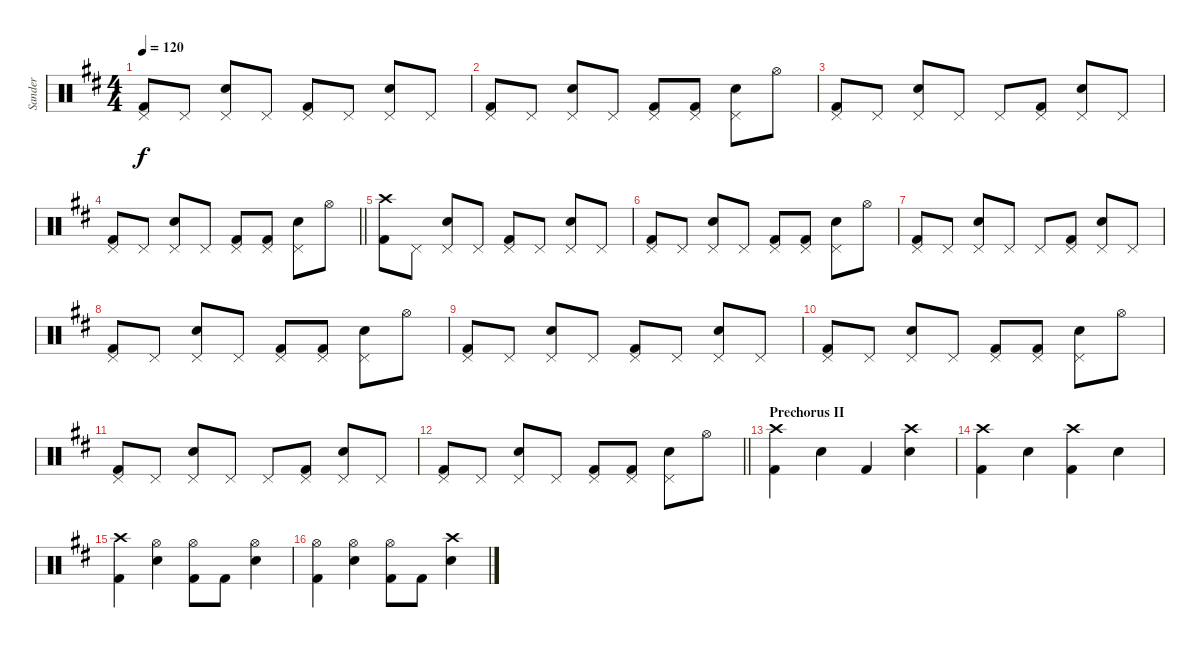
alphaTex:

\track ("Sander" "Sander") {instrument percussion}
\staff {score}
\articulation defaults
\ts (4 4)
\tempo 120
\clef neutral
\ks bminor
("Pedal Hi-Hat (hit)" "Kick (hit) 2").8{dy f} "Pedal Hi-Hat (hit)".8 ("Pedal Hi-Hat (hit)" "Snare (hit) 2").8 "Pedal Hi-Hat (hit)".8 ("Pedal Hi-Hat (hit)" "Kick (hit) 2").8 "Pedal Hi-Hat (hit)".8 ("Pedal Hi-Hat (hit)" "Snare (hit) 2").8 "Pedal Hi-Hat (hit)".8 |
("Pedal Hi-Hat (hit)" "Kick (hit) 2").8 "Pedal Hi-Hat (hit)".8 ("Pedal Hi-Hat (hit)" "Snare (hit) 2").8 "Pedal Hi-Hat (hit)".8 ("Pedal Hi-Hat (hit)" "Kick (hit) 2").8 ("Pedal Hi-Hat (hit)" "Kick (hit) 2").8 ("Pedal Hi-Hat (hit)" "Snare (hit) 2").8 "Hi-Hat (open)".8 |
("Pedal Hi-Hat (hit)" "Kick (hit) 2").8 "Pedal Hi-Hat (hit)".8 ("Pedal Hi-Hat (hit)" "Snare (hit) 2").8 "Pedal Hi-Hat (hit)".8 "Pedal Hi-Hat (hit)".8 ("Pedal Hi-Hat (hit)" "Kick (hit) 2").8 ("Pedal Hi-Hat (hit)" "Snare (hit) 2").8 "Pedal Hi-Hat (hit)".8 |
\barLineRight lightlight
("Pedal Hi-Hat (hit)" "Kick (hit) 2").8 "Pedal Hi-Hat (hit)".8 ("Pedal Hi-Hat (hit)" "Snare (hit) 2").8 "Pedal Hi-Hat (hit)".8 ("Pedal Hi-Hat (hit)" "Kick (hit) 2").8 ("Pedal Hi-Hat (hit)" "Kick (hit) 2").8 ("Pedal Hi-Hat (hit)" "Snare (hit) 2").8 "Hi-Hat (open)".8 |
("Crash high (hit)" "Kick (hit) 2").8 "Pedal Hi-Hat (hit)".8 ("Pedal Hi-Hat (hit)" "Snare (hit) 2").8 "Pedal Hi-Hat (hit)".8 ("Pedal Hi-Hat (hit)" "Kick (hit) 2").8 "Pedal Hi-Hat (hit)".8 ("Pedal Hi-Hat (hit)" "Snare (hit) 2").8 "Pedal Hi-Hat (hit)".8 |
("Pedal Hi-Hat (hit)" "Kick (hit) 2").8 "Pedal Hi-Hat (hit)".8 ("Pedal Hi-Hat (hit)" "Snare (hit) 2").8 "Pedal Hi-Hat (hit)".8 ("Pedal Hi-Hat (hit)" "Kick (hit) 2").8 ("Pedal Hi-Hat (hit)" "Kick (hit) 2").8 ("Pedal Hi-Hat (hit)" "Snare (hit) 2").8 "Hi-Hat (open)".8 |
("Pedal Hi-Hat (hit)" "Kick (hit) 2").8 "Pedal Hi-Hat (hit)".8 ("Pedal Hi-Hat (hit)" "Snare (hit) 2").8 "Pedal Hi-Hat (hit)".8 "Pedal Hi-Hat (hit)".8 ("Pedal Hi-Hat (hit)" "Kick (hit) 2").8 ("Pedal Hi-Hat (hit)" "Snare (hit) 2").8 "Pedal Hi-Hat (hit)".8 |
("Pedal Hi-Hat (hit)" "Kick (hit) 2").8 "Pedal Hi-Hat (hit)".8 ("Pedal Hi-Hat (hit)" "Snare (hit) 2").8 "Pedal Hi-Hat (hit)".8 ("Pedal Hi-Hat (hit)" "Kick (hit) 2").8 ("Pedal Hi-Hat (hit)" "Kick (hit) 2").8 ("Pedal Hi-Hat (hit)" "Snare (hit) 2").8 "Hi-Hat (open)".8 |
("Pedal Hi-Hat (hit)" "Kick (hit) 2").8 "Pedal Hi-Hat (hit)".8 ("Pedal Hi-Hat (hit)" "Snare (hit) 2").8 "Pedal Hi-Hat (hit)".8 ("Pedal Hi-Hat (hit)" "Kick (hit) 2").8 "Pedal Hi-Hat (hit)".8 ("Pedal Hi-Hat (hit)" "Snare (hit) 2").8 "Pedal Hi-Hat (hit)".8 |
("Pedal Hi-Hat (hit)" "Kick (hit) 2").8 "Pedal Hi-Hat (hit)".8 ("Pedal Hi-Hat (hit)" "Snare (hit) 2").8 "Pedal Hi-Hat (hit)".8 ("Pedal Hi-Hat (hit)" "Kick (hit) 2").8 ("Pedal Hi-Hat (hit)" "Kick (hit) 2").8 ("Pedal Hi-Hat (hit)" "Snare (hit) 2").8 "Hi-Hat (open)".8 |
("Pedal Hi-Hat (hit)" "Kick (hit) 2").8 "Pedal Hi-Hat (hit)".8 ("Pedal Hi-Hat (hit)" "Snare (hit) 2").8 "Pedal Hi-Hat (hit)".8 "Pedal Hi-Hat (hit)".8 ("Pedal Hi-Hat (hit)" "Kick (hit) 2").8 ("Pedal Hi-Hat (hit)" "Snare (hit) 2").8 "Pedal Hi-Hat (hit)".8 |
\barLineRight lightlight
("Pedal Hi-Hat (hit)" "Kick (hit) 2").8 "Pedal Hi-Hat (hit)".8 ("Pedal Hi-Hat (hit)" "Snare (hit) 2").8 "Pedal Hi-Hat (hit)".8 ("Pedal Hi-Hat (hit)" "Kick (hit) 2").8 ("Pedal Hi-Hat (hit)" "Kick (hit) 2").8 ("Pedal Hi-Hat (hit)" "Snare (hit) 2").8 "Hi-Hat (open)".8 |
\section ("" "Prechorus II")
("Crash high (hit)" "Kick (hit) 2").4 "Snare (hit) 2".4 "Kick (hit) 2".4 ("Crash high (hit)" "Snare (hit) 2").4 |
("Crash high (hit)" "Kick (hit) 2").4 "Snare (hit) 2".4 ("Crash high (hit)" "Kick (hit) 2").4 "Snare (hit) 2".4 |
("Crash high (hit)" "Kick (hit) 2").4 ("Hi-Hat (open)" "Snare (hit) 2").4 ("Hi-Hat (open)" "Kick (hit) 2").8 "Kick (hit) 2".8 ("Hi-Hat (open)" "Snare (hit) 2").4 |
("Hi-Hat (open)" "Kick (hit) 2").4 ("Hi-Hat (open)" "Snare (hit) 2").4 ("Hi-Hat (open)" "Kick (hit) 2").8 "Kick (hit) 2".8 ("Crash high (hit)" "Snare (hit) 2").4
